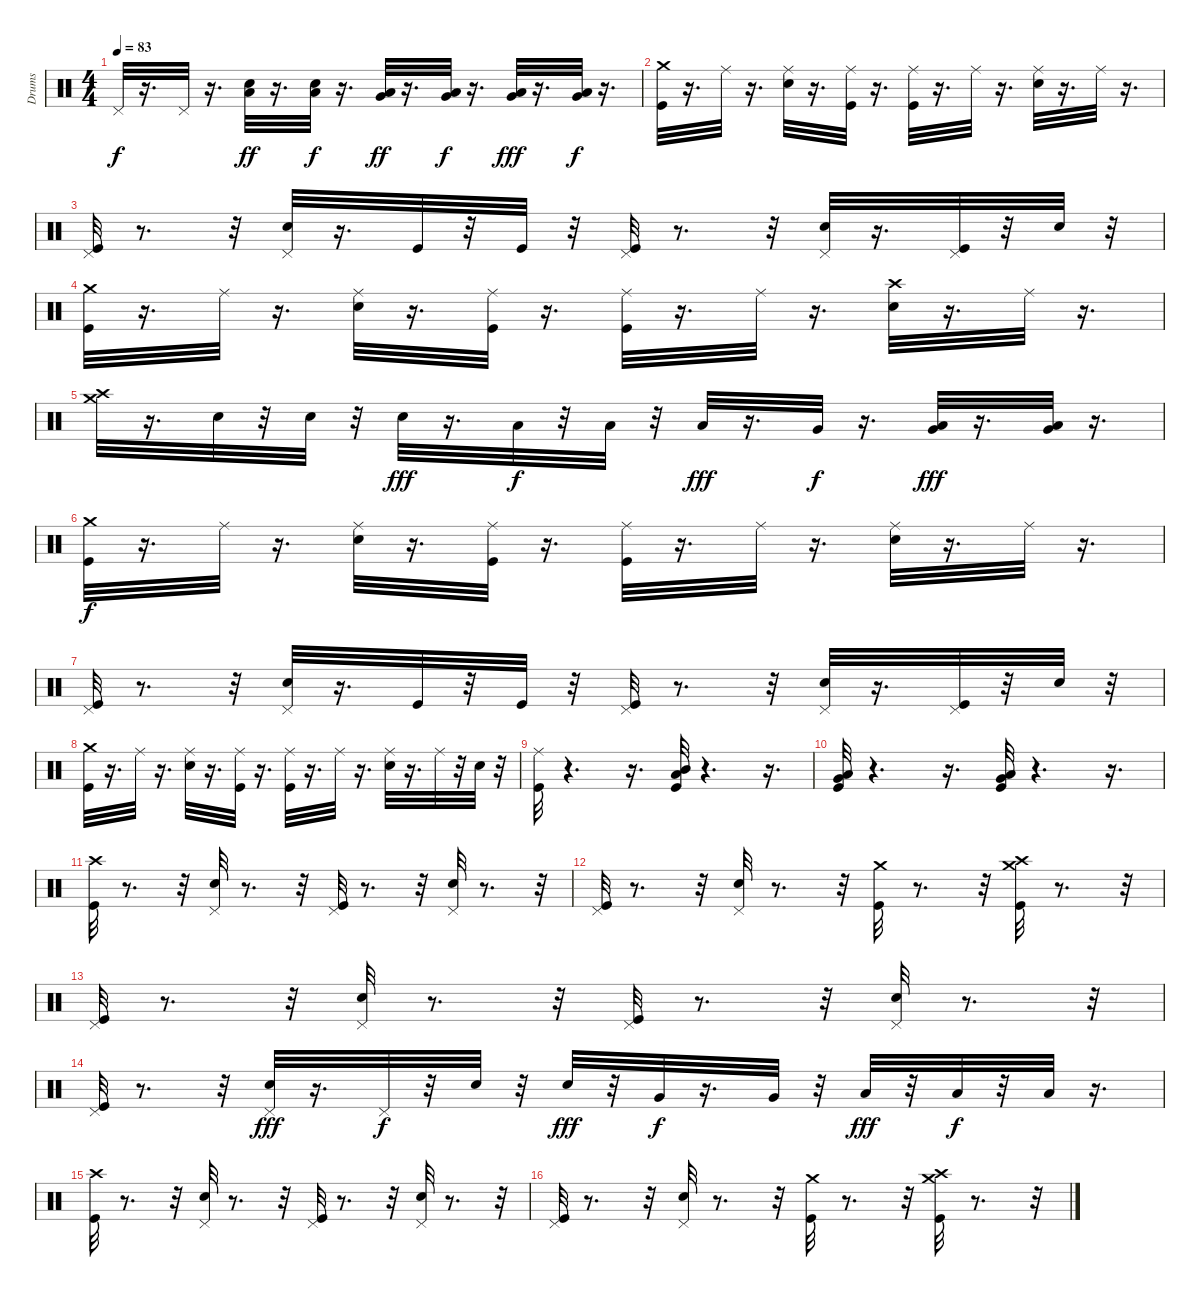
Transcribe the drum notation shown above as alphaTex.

\track ("Drums" "Drums") {instrument percussion}
\staff {score}
\articulation defaults
\ts (4 4)
\tempo 83
\clef neutral
\ks c "Pedal Hi-Hat (hit)".32{dy f}
r.16{d} "Pedal Hi-Hat (hit)".32 r.16{d} ("Low Tom (hit)" "Snare (hit) 2").32{dy ff} r.16{d} ("Low Tom (hit)" "Snare (hit) 2").32{dy f} r.16{d} ("Very Low Tom (hit)" "Low Tom (hit)").32{dy ff} r.16{d} ("Very Low Tom (hit)" "Low Tom (hit)").32{dy f} r.16{d} ("Low Floor Tom (hit)" "Very Low Tom (hit)").32{dy fff} r.16{d} ("Low Floor Tom (hit)" "Very Low Tom (hit)").32{dy f} r.16{d} |
("Crash medium (hit)" "Kick (hit)").32 r.16{d} "Ride (middle)".32 r.16{d} ("Ride (middle)" "Snare (hit) 2").32 r.16{d} ("Ride (middle)" "Kick (hit)").32 r.16{d} ("Ride (middle)" "Kick (hit)").32 r.16{d} "Ride (middle)".32 r.16{d} ("Ride (middle)" "Snare (hit) 2").32 r.16{d} "Ride (middle)".32 r.16{d} |
("Pedal Hi-Hat (hit)" "Kick (hit)").32 r.8{d} r.32 ("Pedal Hi-Hat (hit)" "Snare (hit) 2").32 r.16{d} "Kick (hit)".32 r.32 "Kick (hit)".32 r.32 ("Pedal Hi-Hat (hit)" "Kick (hit)").32 r.8{d} r.32 ("Pedal Hi-Hat (hit)" "Snare (hit) 2").32 r.16{d} ("Pedal Hi-Hat (hit)" "Kick (hit)").32 r.32 "Snare (hit) 2".32 r.32 |
("Crash medium (hit)" "Kick (hit)").32 r.16{d} "Ride (middle)".32 r.16{d} ("Ride (middle)" "Snare (hit) 2").32 r.16{d} ("Ride (middle)" "Kick (hit)").32 r.16{d} ("Ride (middle)" "Kick (hit)").32 r.16{d} "Ride (middle)".32 r.16{d} ("Crash high (hit)" "Snare (hit) 2").32 r.16{d} "Ride (middle)".32 r.16{d} |
("Crash high (hit)" "Crash medium (hit)").32 r.16{d} "Snare (hit) 2".32 r.32 "Snare (hit) 2".32 r.32 "Snare (hit) 2".32{dy fff} r.16{d} "Low Tom (hit)".32{dy f} r.32 "Low Tom (hit)".32 r.32 "Low Tom (hit)".32{dy fff} r.16{d} "Very Low Tom (hit)".32{dy f} r.16{d} ("Low Floor Tom (hit)" "Very Low Tom (hit)").32{dy fff} r.16{d} ("Low Floor Tom (hit)" "Very Low Tom (hit)").32 r.16{d} |
("Crash medium (hit)" "Kick (hit)").32{dy f} r.16{d} "Ride (middle)".32 r.16{d} ("Ride (middle)" "Snare (hit) 2").32 r.16{d} ("Ride (middle)" "Kick (hit)").32 r.16{d} ("Ride (middle)" "Kick (hit)").32 r.16{d} "Ride (middle)".32 r.16{d} ("Ride (middle)" "Snare (hit) 2").32 r.16{d} "Ride (middle)".32 r.16{d} |
("Pedal Hi-Hat (hit)" "Kick (hit)").32 r.8{d} r.32 ("Pedal Hi-Hat (hit)" "Snare (hit) 2").32 r.16{d} "Kick (hit)".32 r.32 "Kick (hit)".32 r.32 ("Pedal Hi-Hat (hit)" "Kick (hit)").32 r.8{d} r.32 ("Pedal Hi-Hat (hit)" "Snare (hit) 2").32 r.16{d} ("Pedal Hi-Hat (hit)" "Kick (hit)").32 r.32 "Snare (hit) 2".32 r.32 |
("Crash medium (hit)" "Kick (hit)").32 r.16{d} "Ride (middle)".32 r.16{d} ("Ride (middle)" "Snare (hit) 2").32 r.16{d} ("Ride (middle)" "Kick (hit)").32 r.16{d} ("Ride (middle)" "Kick (hit)").32 r.16{d} "Ride (middle)".32 r.16{d} ("Ride (middle)" "Snare (hit) 2").32 r.16{d} "Ride (middle)".32 r.32 "Snare (hit) 2".32 r.32 |
("Kick (hit)" "Ride (middle)").32 r.4{d} r.16{d} ("Mid Tom (hit)" "Kick (hit)" "Low Tom (hit)").32 r.4{d} r.16{d} |
("Low Tom (hit)" "Kick (hit)" "Very Low Tom (hit)").32 r.4{d} r.16{d} ("Very Low Tom (hit)" "Kick (hit)" "Low Floor Tom (hit)").32 r.4{d} r.16{d} |
("Crash high (hit)" "Kick (hit)").32 r.8{d} r.32 ("Pedal Hi-Hat (hit)" "Snare (hit) 2").32 r.8{d} r.32 ("Kick (hit)" "Pedal Hi-Hat (hit)").32 r.8{d} r.32 ("Pedal Hi-Hat (hit)" "Snare (hit) 2").32 r.8{d} r.32 |
("Pedal Hi-Hat (hit)" "Kick (hit)").32 r.8{d} r.32 ("Pedal Hi-Hat (hit)" "Snare (hit) 2").32 r.8{d} r.32 ("Crash medium (hit)" "Kick (hit)").32 r.8{d} r.32 ("Crash medium (hit)" "Crash high (hit)" "Kick (hit)").32 r.8{d} r.32 |
("Pedal Hi-Hat (hit)" "Kick (hit)").32 r.8{d} r.32 ("Pedal Hi-Hat (hit)" "Snare (hit) 2").32 r.8{d} r.32 ("Pedal Hi-Hat (hit)" "Kick (hit)").32 r.8{d} r.32 ("Pedal Hi-Hat (hit)" "Snare (hit) 2").32 r.8{d} r.32 |
("Pedal Hi-Hat (hit)" "Kick (hit)").32 r.8{d} r.32 ("Snare (hit) 2" "Pedal Hi-Hat (hit)").32{dy fff} r.16{d} "Pedal Hi-Hat (hit)".32{dy f} r.32 "Snare (hit) 2".32 r.32 "Snare (hit) 2".32{dy fff} r.32 "Very Low Tom (hit)".32{dy f} r.16{d} "Very Low Tom (hit)".32 r.32 "Low Floor Tom (hit)".32{dy fff} r.32 "Low Floor Tom (hit)".32{dy f} r.32 "Low Floor Tom (hit)".32 r.16{d} |
("Crash high (hit)" "Kick (hit)").32 r.8{d} r.32 ("Pedal Hi-Hat (hit)" "Snare (hit) 2").32 r.8{d} r.32 ("Kick (hit)" "Pedal Hi-Hat (hit)").32 r.8{d} r.32 ("Pedal Hi-Hat (hit)" "Snare (hit) 2").32 r.8{d} r.32 |
("Pedal Hi-Hat (hit)" "Kick (hit)").32 r.8{d} r.32 ("Pedal Hi-Hat (hit)" "Snare (hit) 2").32 r.8{d} r.32 ("Crash medium (hit)" "Kick (hit)").32 r.8{d} r.32 ("Crash medium (hit)" "Crash high (hit)" "Kick (hit)").32 r.8{d} r.32
